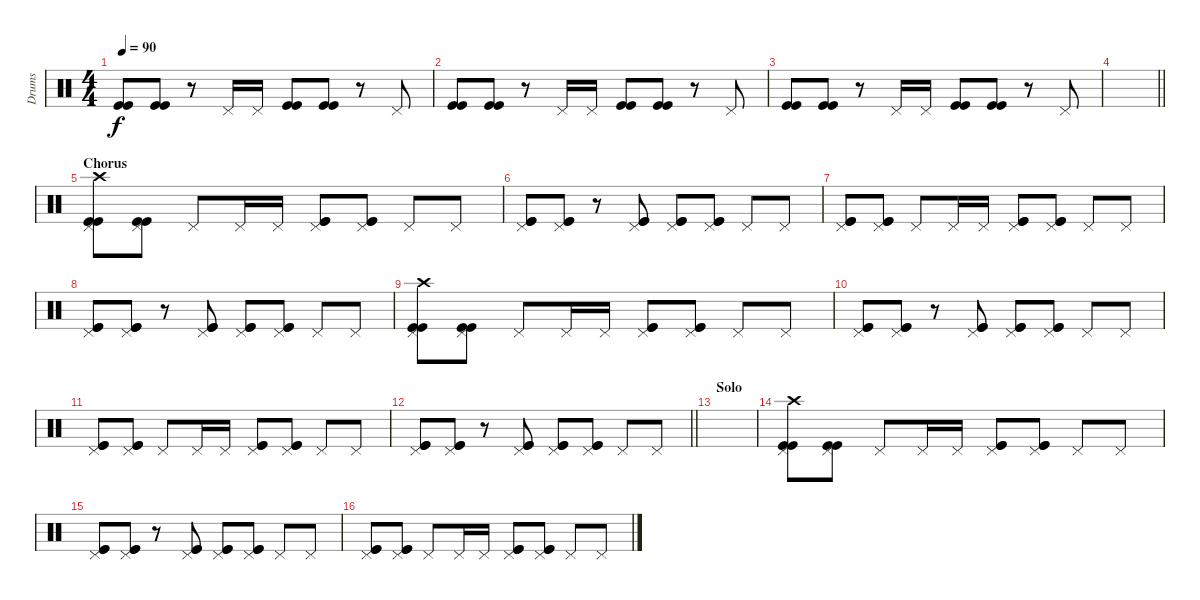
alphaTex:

\track ("Drums" "Drums") {instrument percussion}
\staff {score}
\articulation defaults
\ts (4 4)
\tempo 90
\clef neutral
\ks c
("Kick (hit)" "Kick (hit)").8{dy f} ("Kick (hit)" "Kick (hit)").8 r.8 "Pedal Hi-Hat (hit)".16 "Pedal Hi-Hat (hit)".16 ("Kick (hit)" "Kick (hit)").8 ("Kick (hit)" "Kick (hit)").8 r.8 "Pedal Hi-Hat (hit)".8 |
("Kick (hit)" "Kick (hit)").8 ("Kick (hit)" "Kick (hit)").8 r.8 "Pedal Hi-Hat (hit)".16 "Pedal Hi-Hat (hit)".16 ("Kick (hit)" "Kick (hit)").8 ("Kick (hit)" "Kick (hit)").8 r.8 "Pedal Hi-Hat (hit)".8 |
("Kick (hit)" "Kick (hit)").8 ("Kick (hit)" "Kick (hit)").8 r.8 "Pedal Hi-Hat (hit)".16 "Pedal Hi-Hat (hit)".16 ("Kick (hit)" "Kick (hit)").8 ("Kick (hit)" "Kick (hit)").8 r.8 "Pedal Hi-Hat (hit)".8 |
\barLineRight lightlight
|
\section ("" "Chorus")
("Kick (hit)" "Kick (hit)" "Pedal Hi-Hat (hit)" "Crash high (hit)").8 ("Kick (hit)" "Kick (hit)" "Pedal Hi-Hat (hit)").8 "Pedal Hi-Hat (hit)".8 "Pedal Hi-Hat (hit)".16 "Pedal Hi-Hat (hit)".16 ("Kick (hit)" "Kick (hit)" "Pedal Hi-Hat (hit)").8 ("Kick (hit)" "Kick (hit)" "Pedal Hi-Hat (hit)").8 "Pedal Hi-Hat (hit)".8 "Pedal Hi-Hat (hit)".8 |
("Kick (hit)" "Kick (hit)" "Pedal Hi-Hat (hit)").8 ("Kick (hit)" "Kick (hit)" "Pedal Hi-Hat (hit)").8 r.8 ("Kick (hit)" "Kick (hit)" "Pedal Hi-Hat (hit)").8 ("Kick (hit)" "Kick (hit)" "Pedal Hi-Hat (hit)").8 ("Kick (hit)" "Kick (hit)" "Pedal Hi-Hat (hit)").8 "Pedal Hi-Hat (hit)".8 "Pedal Hi-Hat (hit)".8 |
("Kick (hit)" "Kick (hit)" "Pedal Hi-Hat (hit)").8 ("Kick (hit)" "Kick (hit)" "Pedal Hi-Hat (hit)").8 "Pedal Hi-Hat (hit)".8 "Pedal Hi-Hat (hit)".16 "Pedal Hi-Hat (hit)".16 ("Kick (hit)" "Kick (hit)" "Pedal Hi-Hat (hit)").8 ("Kick (hit)" "Kick (hit)" "Pedal Hi-Hat (hit)").8 "Pedal Hi-Hat (hit)".8 "Pedal Hi-Hat (hit)".8 |
("Kick (hit)" "Kick (hit)" "Pedal Hi-Hat (hit)").8 ("Kick (hit)" "Kick (hit)" "Pedal Hi-Hat (hit)").8 r.8 ("Kick (hit)" "Kick (hit)" "Pedal Hi-Hat (hit)").8 ("Kick (hit)" "Kick (hit)" "Pedal Hi-Hat (hit)").8 ("Kick (hit)" "Kick (hit)" "Pedal Hi-Hat (hit)").8 "Pedal Hi-Hat (hit)".8 "Pedal Hi-Hat (hit)".8 |
("Kick (hit)" "Kick (hit)" "Pedal Hi-Hat (hit)" "Crash high (hit)").8 ("Kick (hit)" "Kick (hit)" "Pedal Hi-Hat (hit)").8 "Pedal Hi-Hat (hit)".8 "Pedal Hi-Hat (hit)".16 "Pedal Hi-Hat (hit)".16 ("Kick (hit)" "Kick (hit)" "Pedal Hi-Hat (hit)").8 ("Kick (hit)" "Kick (hit)" "Pedal Hi-Hat (hit)").8 "Pedal Hi-Hat (hit)".8 "Pedal Hi-Hat (hit)".8 |
("Kick (hit)" "Kick (hit)" "Pedal Hi-Hat (hit)").8 ("Kick (hit)" "Kick (hit)" "Pedal Hi-Hat (hit)").8 r.8 ("Kick (hit)" "Kick (hit)" "Pedal Hi-Hat (hit)").8 ("Kick (hit)" "Kick (hit)" "Pedal Hi-Hat (hit)").8 ("Kick (hit)" "Kick (hit)" "Pedal Hi-Hat (hit)").8 "Pedal Hi-Hat (hit)".8 "Pedal Hi-Hat (hit)".8 |
("Kick (hit)" "Kick (hit)" "Pedal Hi-Hat (hit)").8 ("Kick (hit)" "Kick (hit)" "Pedal Hi-Hat (hit)").8 "Pedal Hi-Hat (hit)".8 "Pedal Hi-Hat (hit)".16 "Pedal Hi-Hat (hit)".16 ("Kick (hit)" "Kick (hit)" "Pedal Hi-Hat (hit)").8 ("Kick (hit)" "Kick (hit)" "Pedal Hi-Hat (hit)").8 "Pedal Hi-Hat (hit)".8 "Pedal Hi-Hat (hit)".8 |
\barLineRight lightlight
("Kick (hit)" "Kick (hit)" "Pedal Hi-Hat (hit)").8 ("Kick (hit)" "Kick (hit)" "Pedal Hi-Hat (hit)").8 r.8 ("Kick (hit)" "Kick (hit)" "Pedal Hi-Hat (hit)").8 ("Kick (hit)" "Kick (hit)" "Pedal Hi-Hat (hit)").8 ("Kick (hit)" "Kick (hit)" "Pedal Hi-Hat (hit)").8 "Pedal Hi-Hat (hit)".8 "Pedal Hi-Hat (hit)".8 |
\section ("" "Solo")
|
("Kick (hit)" "Kick (hit)" "Pedal Hi-Hat (hit)" "Crash high (hit)").8 ("Kick (hit)" "Kick (hit)" "Pedal Hi-Hat (hit)").8 "Pedal Hi-Hat (hit)".8 "Pedal Hi-Hat (hit)".16 "Pedal Hi-Hat (hit)".16 ("Kick (hit)" "Kick (hit)" "Pedal Hi-Hat (hit)").8 ("Kick (hit)" "Kick (hit)" "Pedal Hi-Hat (hit)").8 "Pedal Hi-Hat (hit)".8 "Pedal Hi-Hat (hit)".8 |
("Kick (hit)" "Kick (hit)" "Pedal Hi-Hat (hit)").8 ("Kick (hit)" "Kick (hit)" "Pedal Hi-Hat (hit)").8 r.8 ("Kick (hit)" "Kick (hit)" "Pedal Hi-Hat (hit)").8 ("Kick (hit)" "Kick (hit)" "Pedal Hi-Hat (hit)").8 ("Kick (hit)" "Kick (hit)" "Pedal Hi-Hat (hit)").8 "Pedal Hi-Hat (hit)".8 "Pedal Hi-Hat (hit)".8 |
("Kick (hit)" "Kick (hit)" "Pedal Hi-Hat (hit)").8 ("Kick (hit)" "Kick (hit)" "Pedal Hi-Hat (hit)").8 "Pedal Hi-Hat (hit)".8 "Pedal Hi-Hat (hit)".16 "Pedal Hi-Hat (hit)".16 ("Kick (hit)" "Kick (hit)" "Pedal Hi-Hat (hit)").8 ("Kick (hit)" "Kick (hit)" "Pedal Hi-Hat (hit)").8 "Pedal Hi-Hat (hit)".8 "Pedal Hi-Hat (hit)".8
